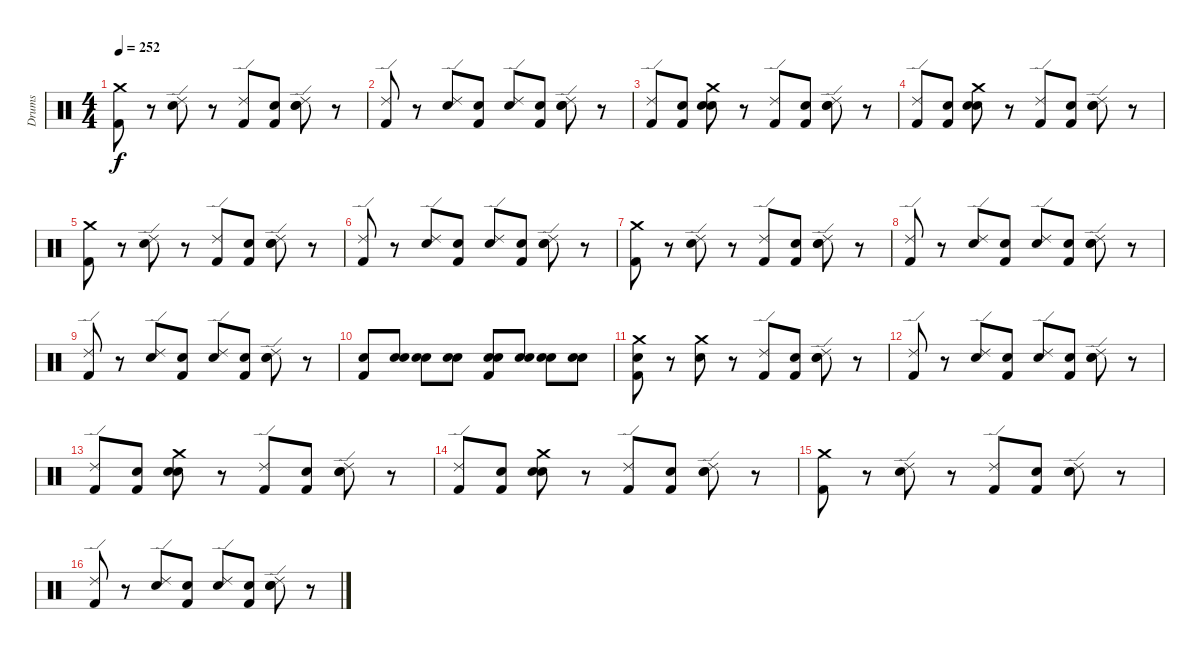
\track ("Drums" "Drums") {instrument percussion}
\staff {score}
\articulation defaults
\ts (4 4)
\tempo 252
\clef neutral
\ks c
("Crash medium (hit)" "Kick (hit) 2").8{dy f} r.8 ("Ride (edge) 2" "Electric Snare (hit)").8 r.8 ("Ride (edge) 2" "Kick (hit) 2").8 ("Snare (hit)" "Kick (hit) 2").8 ("Snare (hit)" "Ride (edge) 2" "Electric Snare (hit)").8 r.8 |
("Ride (edge) 2" "Kick (hit) 2").8 r.8 ("Ride (edge) 2" "Electric Snare (hit)").8 ("Snare (hit)" "Kick (hit) 2").8 ("Snare (hit)" "Ride (edge) 2").8 ("Snare (hit)" "Kick (hit) 2").8 ("Snare (hit)" "Ride (edge) 2" "Electric Snare (hit)").8 r.8 |
("Ride (edge) 2" "Kick (hit) 2").8 ("Snare (hit)" "Kick (hit) 2").8 ("Snare (hit)" "Crash medium (hit)" "Electric Snare (hit)").8 r.8 ("Ride (edge) 2" "Kick (hit) 2").8 ("Snare (hit)" "Kick (hit) 2").8 ("Snare (hit)" "Ride (edge) 2" "Electric Snare (hit)").8 r.8 |
("Ride (edge) 2" "Kick (hit) 2").8 ("Snare (hit)" "Kick (hit) 2").8 ("Snare (hit)" "Crash medium (hit)" "Electric Snare (hit)").8 r.8 ("Ride (edge) 2" "Kick (hit) 2").8 ("Snare (hit)" "Kick (hit) 2").8 ("Snare (hit)" "Ride (edge) 2" "Electric Snare (hit)").8 r.8 |
("Crash medium (hit)" "Kick (hit) 2").8 r.8 ("Ride (edge) 2" "Electric Snare (hit)").8 r.8 ("Ride (edge) 2" "Kick (hit) 2").8 ("Snare (hit)" "Kick (hit) 2").8 ("Snare (hit)" "Ride (edge) 2" "Electric Snare (hit)").8 r.8 |
("Ride (edge) 2" "Kick (hit) 2").8 r.8 ("Ride (edge) 2" "Electric Snare (hit)").8 ("Snare (hit)" "Kick (hit) 2").8 ("Snare (hit)" "Ride (edge) 2").8 ("Snare (hit)" "Kick (hit) 2").8 ("Snare (hit)" "Ride (edge) 2" "Electric Snare (hit)").8 r.8 |
("Crash medium (hit)" "Kick (hit) 2").8 r.8 ("Ride (edge) 2" "Electric Snare (hit)").8 r.8 ("Ride (edge) 2" "Kick (hit) 2").8 ("Snare (hit)" "Kick (hit) 2").8 ("Snare (hit)" "Ride (edge) 2" "Electric Snare (hit)").8 r.8 |
("Ride (edge) 2" "Kick (hit) 2").8 r.8 ("Ride (edge) 2" "Electric Snare (hit)").8 ("Snare (hit)" "Kick (hit) 2").8 ("Snare (hit)" "Ride (edge) 2").8 ("Snare (hit)" "Kick (hit) 2").8 ("Snare (hit)" "Ride (edge) 2" "Electric Snare (hit)").8 r.8 |
("Kick (hit) 2" "Ride (edge) 2").8 r.8 ("Electric Snare (hit)" "Ride (edge) 2").8 ("Snare (hit)" "Kick (hit) 2").8 ("Snare (hit)" "Ride (edge) 2").8 ("Snare (hit)" "Kick (hit) 2").8 ("Snare (hit)" "Electric Snare (hit)" "Ride (edge) 2").8 r.8 |
("Kick (hit) 2" "Electric Snare (hit)").8 ("Snare (hit)" "Electric Snare (hit)").8 ("Snare (hit)" "Electric Snare (hit)").8 ("Snare (hit)" "Electric Snare (hit)").8 ("Snare (hit)" "Kick (hit) 2" "Electric Snare (hit)").8 ("Snare (hit)" "Electric Snare (hit)").8 ("Snare (hit)" "Electric Snare (hit)").8 ("Snare (hit)" "Electric Snare (hit)").8 |
("Snare (hit)" "Crash medium (hit)" "Kick (hit) 2").8 r.8 ("Crash medium (hit)" "Electric Snare (hit)").8 r.8 ("Ride (edge) 2" "Kick (hit) 2").8 ("Snare (hit)" "Kick (hit) 2").8 ("Snare (hit)" "Ride (edge) 2" "Electric Snare (hit)").8 r.8 |
("Ride (edge) 2" "Kick (hit) 2").8 r.8 ("Ride (edge) 2" "Electric Snare (hit)").8 ("Snare (hit)" "Kick (hit) 2").8 ("Snare (hit)" "Ride (edge) 2").8 ("Snare (hit)" "Kick (hit) 2").8 ("Snare (hit)" "Ride (edge) 2" "Electric Snare (hit)").8 r.8 |
("Ride (edge) 2" "Kick (hit) 2").8 ("Snare (hit)" "Kick (hit) 2").8 ("Snare (hit)" "Crash medium (hit)" "Electric Snare (hit)").8 r.8 ("Ride (edge) 2" "Kick (hit) 2").8 ("Snare (hit)" "Kick (hit) 2").8 ("Snare (hit)" "Ride (edge) 2" "Electric Snare (hit)").8 r.8 |
("Ride (edge) 2" "Kick (hit) 2").8 ("Snare (hit)" "Kick (hit) 2").8 ("Snare (hit)" "Crash medium (hit)" "Electric Snare (hit)").8 r.8 ("Ride (edge) 2" "Kick (hit) 2").8 ("Snare (hit)" "Kick (hit) 2").8 ("Snare (hit)" "Ride (edge) 2" "Electric Snare (hit)").8 r.8 |
("Crash medium (hit)" "Kick (hit) 2").8 r.8 ("Ride (edge) 2" "Electric Snare (hit)").8 r.8 ("Ride (edge) 2" "Kick (hit) 2").8 ("Snare (hit)" "Kick (hit) 2").8 ("Snare (hit)" "Ride (edge) 2" "Electric Snare (hit)").8 r.8 |
("Ride (edge) 2" "Kick (hit) 2").8 r.8 ("Ride (edge) 2" "Electric Snare (hit)").8 ("Snare (hit)" "Kick (hit) 2").8 ("Snare (hit)" "Ride (edge) 2").8 ("Snare (hit)" "Kick (hit) 2").8 ("Snare (hit)" "Ride (edge) 2" "Electric Snare (hit)").8 r.8
